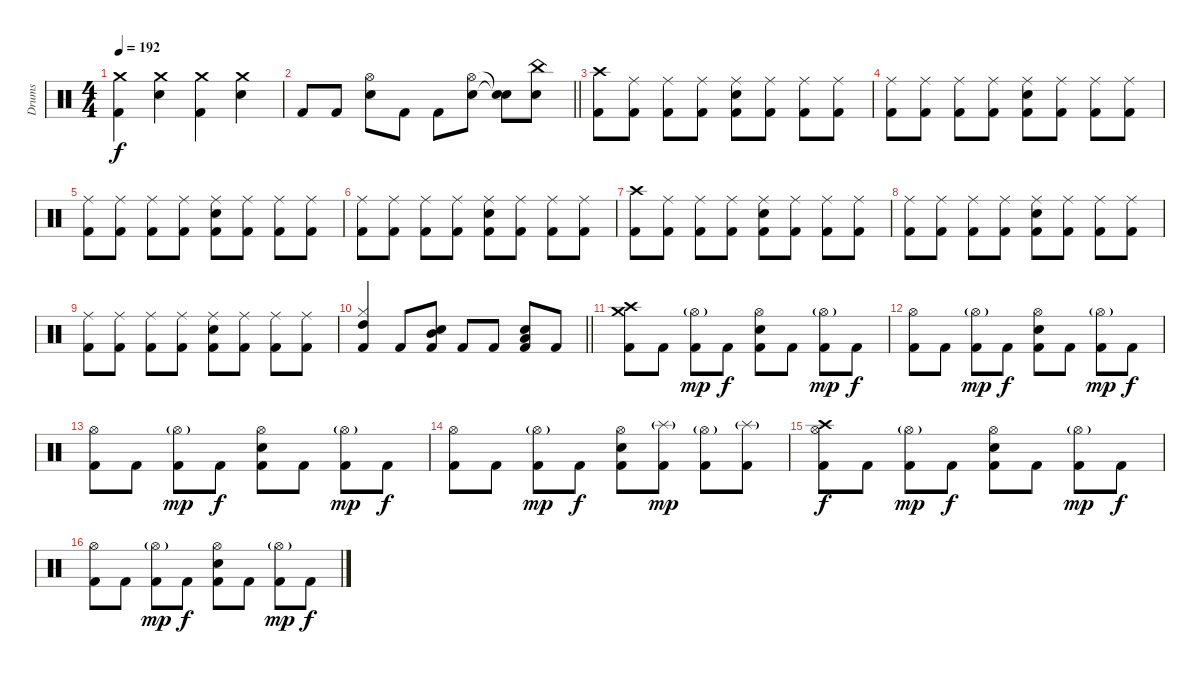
\track ("Drums" "Drums") {instrument percussion}
\staff {score}
\articulation defaults
\ts (4 4)
\tempo 192
\clef neutral
\ks c
("Crash medium (hit)" "Kick (hit) 2").4{dy f} ("Crash medium (hit)" "Electric Snare (hit)").4 ("Crash medium (hit)" "Kick (hit) 2").4 ("Crash medium (hit)" "Electric Snare (hit)").4 |
\barLineRight lightlight "Kick (hit) 2".8 "Kick (hit) 2".8
("Hi-Hat (open)" "Electric Snare (hit)").8 "Kick (hit) 2".8 "Kick (hit) 2".8 ("Hi-Hat (open)" "Electric Snare (hit)").8 ("Snare (hit)"{t} "Snare (hit)"{t}).8 ("China (hit)" "Electric Snare (hit)").8 |
("Crash high (hit)" "Kick (hit) 2").8 ("Ride (middle)" "Kick (hit) 2").8 ("Ride (middle)" "Kick (hit) 2").8 ("Ride (middle)" "Kick (hit) 2").8 ("Ride (middle)" "Electric Snare (hit)" "Kick (hit) 2").8 ("Ride (middle)" "Kick (hit) 2").8 ("Ride (middle)" "Kick (hit) 2").8 ("Ride (middle)" "Kick (hit) 2").8 |
("Ride (middle)" "Kick (hit) 2").8 ("Ride (middle)" "Kick (hit) 2").8 ("Ride (middle)" "Kick (hit) 2").8 ("Ride (middle)" "Kick (hit) 2").8 ("Ride (middle)" "Electric Snare (hit)" "Kick (hit) 2").8 ("Ride (middle)" "Kick (hit) 2").8 ("Ride (middle)" "Kick (hit) 2").8 ("Ride (middle)" "Kick (hit) 2").8 |
("Ride (middle)" "Kick (hit) 2").8 ("Ride (middle)" "Kick (hit) 2").8 ("Ride (middle)" "Kick (hit) 2").8 ("Ride (middle)" "Kick (hit) 2").8 ("Ride (middle)" "Electric Snare (hit)" "Kick (hit) 2").8 ("Ride (middle)" "Kick (hit) 2").8 ("Ride (middle)" "Kick (hit) 2").8 ("Ride (middle)" "Kick (hit) 2").8 |
("Ride (middle)" "Kick (hit) 2").8 ("Ride (middle)" "Kick (hit) 2").8 ("Ride (middle)" "Kick (hit) 2").8 ("Ride (middle)" "Kick (hit) 2").8 ("Ride (middle)" "Electric Snare (hit)" "Kick (hit) 2").8 ("Ride (middle)" "Kick (hit) 2").8 ("Ride (middle)" "Kick (hit) 2").8 ("Ride (middle)" "Kick (hit) 2").8 |
("Crash high (hit)" "Kick (hit) 2").8 ("Ride (middle)" "Kick (hit) 2").8 ("Ride (middle)" "Kick (hit) 2").8 ("Ride (middle)" "Kick (hit) 2").8 ("Ride (middle)" "Electric Snare (hit)" "Kick (hit) 2").8 ("Ride (middle)" "Kick (hit) 2").8 ("Ride (middle)" "Kick (hit) 2").8 ("Ride (middle)" "Kick (hit) 2").8 |
("Ride (middle)" "Kick (hit) 2").8 ("Ride (middle)" "Kick (hit) 2").8 ("Ride (middle)" "Kick (hit) 2").8 ("Ride (middle)" "Kick (hit) 2").8 ("Ride (middle)" "Electric Snare (hit)" "Kick (hit) 2").8 ("Ride (middle)" "Kick (hit) 2").8 ("Ride (middle)" "Kick (hit) 2").8 ("Ride (middle)" "Kick (hit) 2").8 |
("Ride (middle)" "Kick (hit) 2").8 ("Ride (middle)" "Kick (hit) 2").8 ("Ride (middle)" "Kick (hit) 2").8 ("Ride (middle)" "Kick (hit) 2").8 ("Ride (middle)" "Electric Snare (hit)" "Kick (hit) 2").8 ("Ride (middle)" "Kick (hit) 2").8 ("Ride (middle)" "Kick (hit) 2").8 ("Ride (middle)" "Kick (hit) 2").8 |
\barLineRight lightlight
("Kick (hit) 2" "Hi-Hat (closed)" "High Tom (hit)").4 "Kick (hit) 2".8 ("Kick (hit) 2" "Electric Snare (hit)" "Mid Tom (hit)").8 "Kick (hit) 2".8 "Kick (hit) 2".8 ("Kick (hit) 2" "Electric Snare (hit)" "Low Tom (hit)").8 "Kick (hit) 2".8 |
("Crash high (hit)" "Crash medium (hit)" "Kick (hit) 2").8 "Kick (hit) 2".8 ("Hi-Hat (open)"{g} "Kick (hit) 2").8{dy mp} "Kick (hit) 2".8{dy f} ("Hi-Hat (open)" "Electric Snare (hit)" "Kick (hit) 2").8 "Kick (hit) 2".8 ("Hi-Hat (open)"{g} "Kick (hit) 2").8{dy mp} "Kick (hit) 2".8{dy f} |
("Hi-Hat (open)" "Kick (hit) 2").8 "Kick (hit) 2".8 ("Hi-Hat (open)"{g} "Kick (hit) 2").8{dy mp} "Kick (hit) 2".8{dy f} ("Hi-Hat (open)" "Electric Snare (hit)" "Kick (hit) 2").8 "Kick (hit) 2".8 ("Hi-Hat (open)"{g} "Kick (hit) 2").8{dy mp} "Kick (hit) 2".8{dy f} |
("Hi-Hat (open)" "Kick (hit) 2").8 "Kick (hit) 2".8 ("Hi-Hat (open)"{g} "Kick (hit) 2").8{dy mp} "Kick (hit) 2".8{dy f} ("Hi-Hat (open)" "Electric Snare (hit)" "Kick (hit) 2").8 "Kick (hit) 2".8 ("Hi-Hat (open)"{g} "Kick (hit) 2").8{dy mp} "Kick (hit) 2".8{dy f} |
("Hi-Hat (open)" "Kick (hit) 2").8 "Kick (hit) 2".8 ("Hi-Hat (open)"{g} "Kick (hit) 2").8{dy mp} "Kick (hit) 2".8{dy f} ("Hi-Hat (open)" "Electric Snare (hit)" "Kick (hit) 2").8 ("Splash (hit)"{g} "Kick (hit) 2").8{dy mp} ("Hi-Hat (open)"{g} "Kick (hit) 2").8 ("Splash (hit)"{g} "Kick (hit) 2").8 |
("Crash high (hit)" "Hi-Hat (open)" "Kick (hit) 2").8{dy f} "Kick (hit) 2".8 ("Hi-Hat (open)"{g} "Kick (hit) 2").8{dy mp} "Kick (hit) 2".8{dy f} ("Hi-Hat (open)" "Electric Snare (hit)" "Kick (hit) 2").8 "Kick (hit) 2".8 ("Hi-Hat (open)"{g} "Kick (hit) 2").8{dy mp} "Kick (hit) 2".8{dy f} |
("Hi-Hat (open)" "Kick (hit) 2").8 "Kick (hit) 2".8 ("Hi-Hat (open)"{g} "Kick (hit) 2").8{dy mp} "Kick (hit) 2".8{dy f} ("Hi-Hat (open)" "Electric Snare (hit)" "Kick (hit) 2").8 "Kick (hit) 2".8 ("Hi-Hat (open)"{g} "Kick (hit) 2").8{dy mp} "Kick (hit) 2".8{dy f}
